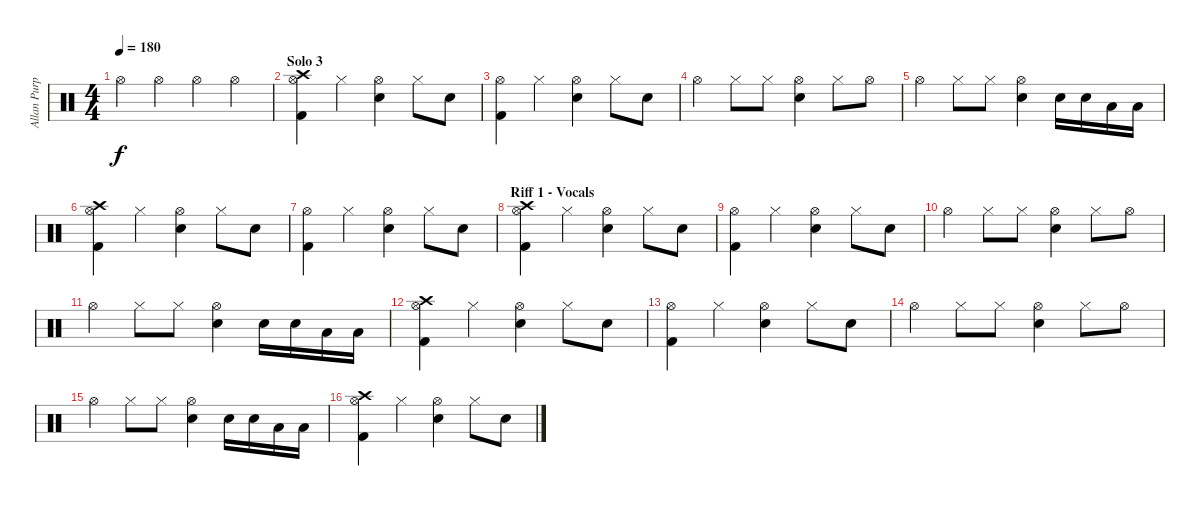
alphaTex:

\track ("Allan Purple" "Allan Purp") {instrument percussion}
\staff {score}
\articulation defaults
\ts (4 4)
\tempo 180
\clef neutral
\ks c "Hi-Hat (open)".4{dy f} "Hi-Hat (open)".4 "Hi-Hat (open)".4 "Hi-Hat (open)".4
|
\section ("" "Solo 3")
("Crash high (hit)" "Hi-Hat (open)" "Kick (hit) 2").4 "Hi-Hat (closed)".4 ("Hi-Hat (open)" "Snare (hit) 2").4 "Hi-Hat (closed)".8 "Snare (hit) 2".8 |
("Hi-Hat (open)" "Kick (hit) 2").4 "Hi-Hat (closed)".4 ("Hi-Hat (open)" "Snare (hit) 2").4 "Hi-Hat (closed)".8 "Snare (hit) 2".8 |
"Hi-Hat (open)".4 "Hi-Hat (closed)".8 "Hi-Hat (closed)".8 ("Hi-Hat (open)" "Snare (hit) 2").4 "Hi-Hat (closed)".8 "Hi-Hat (open)".8 |
"Hi-Hat (open)".4 "Hi-Hat (closed)".8 "Hi-Hat (closed)".8 ("Hi-Hat (open)" "Snare (hit) 2").4 "Electric Snare (hit)".16 "Electric Snare (hit)".16 "Low Tom (hit)".16 "Low Tom (hit)".16 |
("Crash high (hit)" "Hi-Hat (open)" "Kick (hit) 2").4 "Hi-Hat (closed)".4 ("Hi-Hat (open)" "Snare (hit) 2").4 "Hi-Hat (closed)".8 "Snare (hit) 2".8 |
("Hi-Hat (open)" "Kick (hit) 2").4 "Hi-Hat (closed)".4 ("Hi-Hat (open)" "Snare (hit) 2").4 "Hi-Hat (closed)".8 "Snare (hit) 2".8 |
\section ("" "Riff 1 - Vocals")
("Crash high (hit)" "Hi-Hat (open)" "Kick (hit) 2").4 "Hi-Hat (closed)".4 ("Hi-Hat (open)" "Snare (hit) 2").4 "Hi-Hat (closed)".8 "Snare (hit) 2".8 |
("Hi-Hat (open)" "Kick (hit) 2").4 "Hi-Hat (closed)".4 ("Hi-Hat (open)" "Snare (hit) 2").4 "Hi-Hat (closed)".8 "Snare (hit) 2".8 |
"Hi-Hat (open)".4 "Hi-Hat (closed)".8 "Hi-Hat (closed)".8 ("Hi-Hat (open)" "Snare (hit) 2").4 "Hi-Hat (closed)".8 "Hi-Hat (open)".8 |
"Hi-Hat (open)".4 "Hi-Hat (closed)".8 "Hi-Hat (closed)".8 ("Hi-Hat (open)" "Snare (hit) 2").4 "Electric Snare (hit)".16 "Electric Snare (hit)".16 "Low Tom (hit)".16 "Low Tom (hit)".16 |
("Crash high (hit)" "Hi-Hat (open)" "Kick (hit) 2").4 "Hi-Hat (closed)".4 ("Hi-Hat (open)" "Snare (hit) 2").4 "Hi-Hat (closed)".8 "Snare (hit) 2".8 |
("Hi-Hat (open)" "Kick (hit) 2").4 "Hi-Hat (closed)".4 ("Hi-Hat (open)" "Snare (hit) 2").4 "Hi-Hat (closed)".8 "Snare (hit) 2".8 |
"Hi-Hat (open)".4 "Hi-Hat (closed)".8 "Hi-Hat (closed)".8 ("Hi-Hat (open)" "Snare (hit) 2").4 "Hi-Hat (closed)".8 "Hi-Hat (open)".8 |
"Hi-Hat (open)".4 "Hi-Hat (closed)".8 "Hi-Hat (closed)".8 ("Hi-Hat (open)" "Snare (hit) 2").4 "Electric Snare (hit)".16 "Electric Snare (hit)".16 "Low Tom (hit)".16 "Low Tom (hit)".16 |
("Crash high (hit)" "Hi-Hat (open)" "Kick (hit) 2").4 "Hi-Hat (closed)".4 ("Hi-Hat (open)" "Snare (hit) 2").4 "Hi-Hat (closed)".8 "Snare (hit) 2".8
